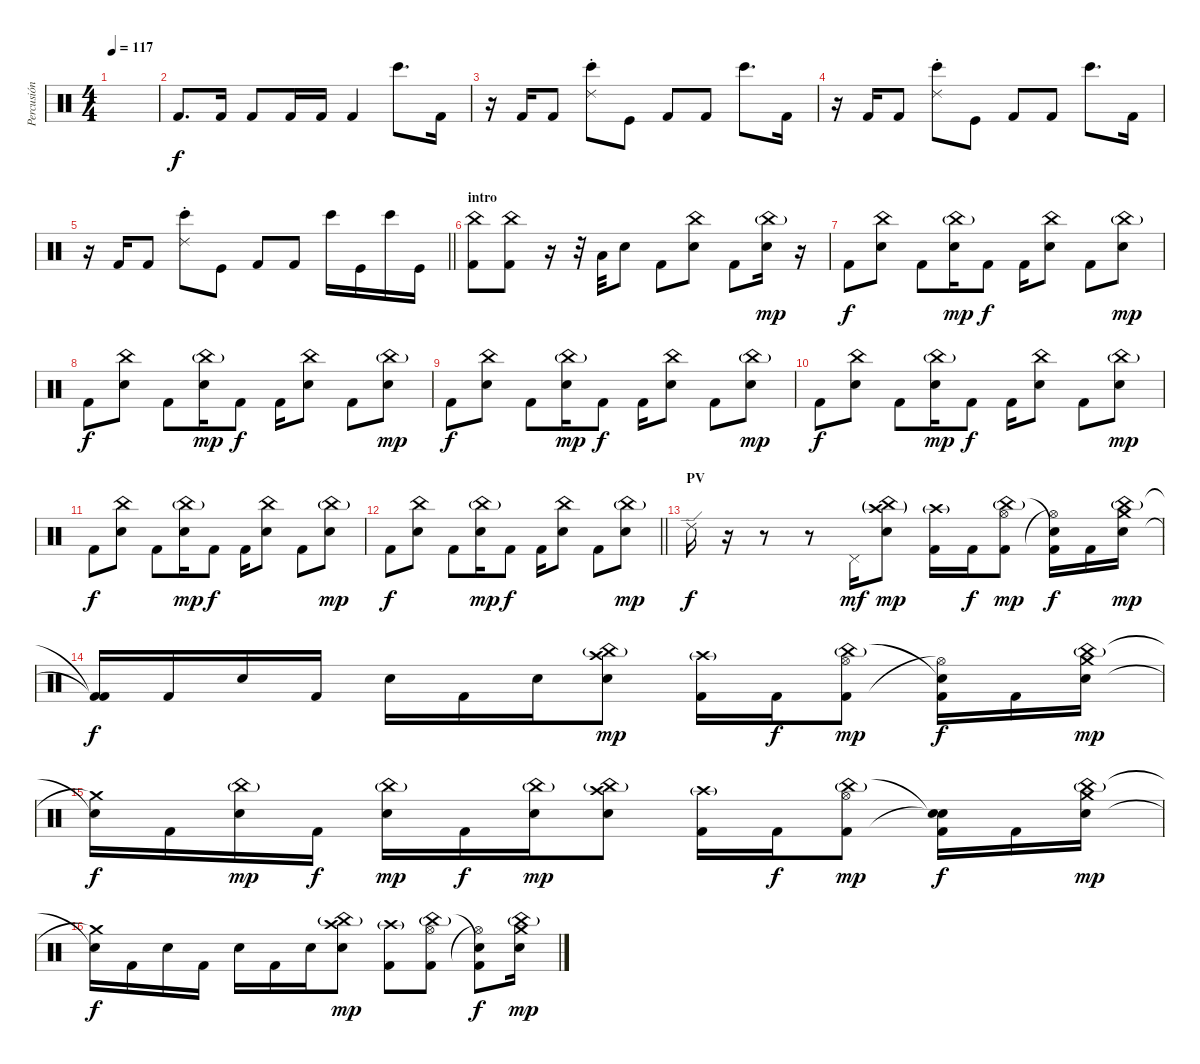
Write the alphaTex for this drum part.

\track ("Percusión" "Percusión") {instrument percussion}
\staff {score}
\articulation defaults
\ts (4 4)
\tempo 117
\clef neutral
\ks c
|
"Kick (hit) 2".8{d} "Kick (hit) 2".16 "Kick (hit) 2".8 "Kick (hit) 2".16 "Kick (hit) 2".16 "Kick (hit) 2".4 "Bongo High (hit)".8{d} "Kick (hit) 2".16 |
r.16 "Kick (hit) 2".16 "Kick (hit) 2".8 ("Bongo High (hit)" "Ride (choke) 2").8 "Kick (hit)".8 "Kick (hit) 2".8 "Kick (hit) 2".8 "Bongo High (hit)".8{d} "Kick (hit) 2".16 |
r.16 "Kick (hit) 2".16 "Kick (hit) 2".8 ("Bongo High (hit)" "Ride (choke) 2").8 "Kick (hit)".8 "Kick (hit) 2".8 "Kick (hit) 2".8 "Bongo High (hit)".8{d} "Kick (hit) 2".16 |
\barLineRight lightlight
r.16 "Kick (hit) 2".16 "Kick (hit) 2".8 ("Bongo High (hit)" "Ride (choke) 2").8 "Kick (hit)".8 "Kick (hit) 2".8 "Kick (hit) 2".8 "Bongo High (hit)".16 "Kick (hit)".16 "Bongo High (hit)".16 "Kick (hit)".16 |
\section ("" "intro")
("Kick (hit) 2" "China (hit)").8 ("Kick (hit) 2" "China (hit)").8 r.16 r.32 "Low Tom (hit)".32 "Snare (hit) 2".8 "Kick (hit) 2".8 ("Snare (hit) 2" "China (hit)").8 "Kick (hit) 2".8 ("Snare (hit) 2" "China (hit)"{g}).16{dy mp} r.16 |
"Kick (hit) 2".8{dy f} ("Snare (hit) 2" "China (hit)").8 "Kick (hit) 2".8 ("Snare (hit) 2" "China (hit)"{g}).16{dy mp} "Kick (hit) 2".8{dy f} "Kick (hit) 2".16 ("Snare (hit) 2" "China (hit)").8 "Kick (hit) 2".8 ("Snare (hit) 2" "China (hit)"{g}).8{dy mp} |
"Kick (hit) 2".8{dy f} ("Snare (hit) 2" "China (hit)").8 "Kick (hit) 2".8 ("Snare (hit) 2" "China (hit)"{g}).16{dy mp} "Kick (hit) 2".8{dy f} "Kick (hit) 2".16 ("Snare (hit) 2" "China (hit)").8 "Kick (hit) 2".8 ("Snare (hit) 2" "China (hit)"{g}).8{dy mp} |
"Kick (hit) 2".8{dy f} ("Snare (hit) 2" "China (hit)").8 "Kick (hit) 2".8 ("Snare (hit) 2" "China (hit)"{g}).16{dy mp} "Kick (hit) 2".8{dy f} "Kick (hit) 2".16 ("Snare (hit) 2" "China (hit)").8 "Kick (hit) 2".8 ("Snare (hit) 2" "China (hit)"{g}).8{dy mp} |
"Kick (hit) 2".8{dy f} ("Snare (hit) 2" "China (hit)").8 "Kick (hit) 2".8 ("Snare (hit) 2" "China (hit)"{g}).16{dy mp} "Kick (hit) 2".8{dy f} "Kick (hit) 2".16 ("Snare (hit) 2" "China (hit)").8 "Kick (hit) 2".8 ("Snare (hit) 2" "China (hit)"{g}).8{dy mp} |
"Kick (hit) 2".8{dy f} ("Snare (hit) 2" "China (hit)").8 "Kick (hit) 2".8 ("Snare (hit) 2" "China (hit)"{g}).16{dy mp} "Kick (hit) 2".8{dy f} "Kick (hit) 2".16 ("Snare (hit) 2" "China (hit)").8 "Kick (hit) 2".8 ("Snare (hit) 2" "China (hit)"{g}).8{dy mp} |
\barLineRight lightlight "Kick (hit) 2".8{dy f}
("Snare (hit) 2" "China (hit)").8 "Kick (hit) 2".8 ("Snare (hit) 2" "China (hit)"{g}).16{dy mp} "Kick (hit) 2".8{dy f} "Kick (hit) 2".16 ("Snare (hit) 2" "China (hit)").8 "Kick (hit) 2".8 ("Snare (hit) 2" "China (hit)"{g}).8{dy mp} |
\section ("" "PV")
"Ride (edge) 2".16{dy f} r.16 r.8 r.8 "Pedal Hi-Hat (hit)".16{dy mf} ("China (hit)"{g} "Electric Snare (hit)" "Crash high (hit)"{g}).8{dy mp} ("Crash high (hit)"{g} "Kick (hit) 2").16 "Kick (hit) 2".16{dy f} ("China (hit)"{g} "Kick (hit) 2" "Hi-Hat (open)").8{dy mp} ("Snare (hit)"{t} "Hi-Hat (open)"{t} "Kick (hit) 2").16{dy f} "Kick (hit) 2".16 ("China (hit)"{g} "Electric Snare (hit)" "Crash medium (hit)").16{dy mp} |
("Kick (hit) 2"{t} "Kick (hit) 2"{t}).16{dy f} "Kick (hit) 2".16 "Snare (hit) 2".16 "Kick (hit) 2".16 "Snare (hit) 2".16 "Kick (hit) 2".16 "Snare (hit) 2".16 ("China (hit)"{g} "Electric Snare (hit)" "Crash high (hit)").8{dy mp} ("Crash high (hit)"{g} "Kick (hit) 2").16 "Kick (hit) 2".16{dy f} ("China (hit)"{g} "Kick (hit) 2" "Hi-Hat (open)").8{dy mp} ("Snare (hit)"{t} "Hi-Hat (open)"{t} "Kick (hit) 2").16{dy f} "Kick (hit) 2".16 ("China (hit)"{g} "Electric Snare (hit)" "Crash medium (hit)").16{dy mp} |
("Snare (hit)"{t} "Crash medium (hit)"{t}).16{dy f} "Kick (hit) 2".16 ("China (hit)"{g} "Electric Snare (hit)").16{dy mp} "Kick (hit) 2".16{dy f} ("China (hit)"{g} "Electric Snare (hit)").16{dy mp} "Kick (hit) 2".16{dy f} ("China (hit)"{g} "Electric Snare (hit)").16{dy mp} ("China (hit)"{g} "Snare (hit) 2" "Crash high (hit)").8 ("Crash high (hit)"{g} "Kick (hit) 2").16 "Kick (hit) 2".16{dy f} ("China (hit)"{g} "Kick (hit) 2" "Hi-Hat (open)").8{dy mp} ("Snare (hit)"{t} "Snare (hit)"{t} "Kick (hit) 2").16{dy f} "Kick (hit) 2".16 ("China (hit)"{g} "Snare (hit) 2" "Crash medium (hit)").16{dy mp} |
("Snare (hit)"{t} "Crash medium (hit)"{t}).16{dy f} "Kick (hit) 2".16 "Snare (hit) 2".16 "Kick (hit) 2".16 "Snare (hit) 2".16 "Kick (hit) 2".16 "Snare (hit) 2".16 ("China (hit)"{g} "Snare (hit) 2" "Crash high (hit)").8{dy mp} ("Crash high (hit)"{g} "Kick (hit) 2").8 ("China (hit)"{g} "Kick (hit) 2" "Hi-Hat (open)").8 ("Snare (hit)"{t} "Hi-Hat (open)"{t} "Kick (hit) 2").8{dy f} ("China (hit)"{g} "Snare (hit) 2" "Crash medium (hit)").16{dy mp}
